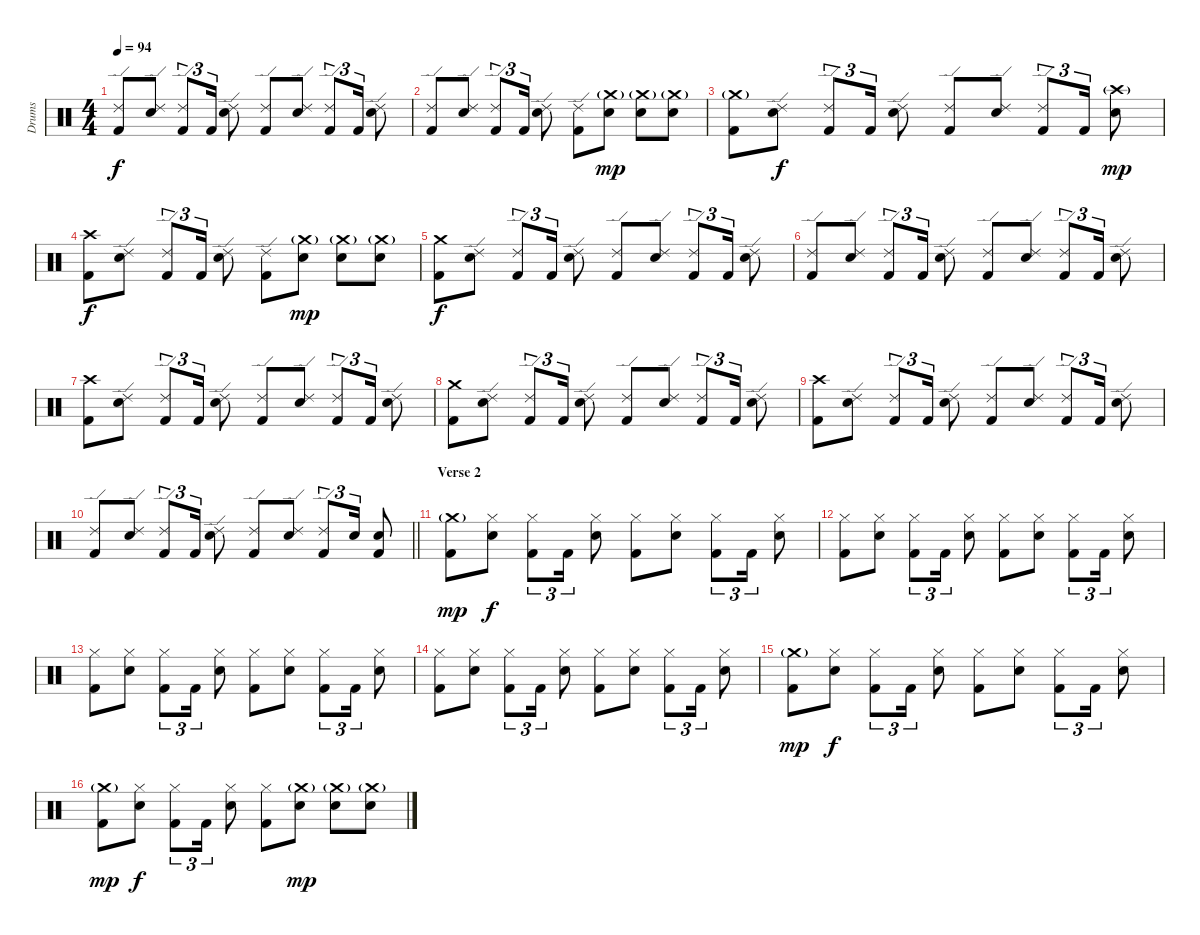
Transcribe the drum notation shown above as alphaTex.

\track ("Drums" "Drums") {instrument percussion}
\staff {score}
\articulation defaults
\ts (4 4)
\tempo 94
\clef neutral
\ks c
("Ride (edge) 2" "Kick (hit) 2").8{dy f} ("Ride (edge) 2" "Electric Snare (hit)").8 ("Ride (edge) 2" "Kick (hit) 2").8{tu (3 2)} "Kick (hit) 2".16{tu (3 2)} ("Ride (edge) 2" "Electric Snare (hit)").8 ("Ride (edge) 2" "Kick (hit) 2").8 ("Ride (edge) 2" "Electric Snare (hit)").8 ("Ride (edge) 2" "Kick (hit) 2").8{tu (3 2)} "Kick (hit) 2".16{tu (3 2)} ("Ride (edge) 2" "Electric Snare (hit)").8 |
("Ride (edge) 2" "Kick (hit) 2").8 ("Ride (edge) 2" "Electric Snare (hit)").8 ("Ride (edge) 2" "Kick (hit) 2").8{tu (3 2)} "Kick (hit) 2".16{tu (3 2)} ("Ride (edge) 2" "Electric Snare (hit)").8 ("Ride (edge) 2" "Kick (hit) 2").8 ("Crash medium (hit)"{g} "Electric Snare (hit)").8{dy mp} ("Crash medium (hit)"{g} "Electric Snare (hit)").8 ("Crash medium (hit)"{g} "Electric Snare (hit)").8 |
("Crash medium (hit)"{g} "Kick (hit) 2").8 ("Ride (edge) 2" "Electric Snare (hit)").8{dy f} ("Ride (edge) 2" "Kick (hit) 2").8{tu (3 2)} "Kick (hit) 2".16{tu (3 2)} ("Ride (edge) 2" "Electric Snare (hit)").8 ("Ride (edge) 2" "Kick (hit) 2").8 ("Ride (edge) 2" "Electric Snare (hit)").8 ("Ride (edge) 2" "Kick (hit) 2").8{tu (3 2)} "Kick (hit) 2".16{tu (3 2)} ("Crash high (hit)"{g} "Electric Snare (hit)").8{dy mp} |
("Crash high (hit)" "Kick (hit) 2").8{dy f} ("Ride (edge) 2" "Electric Snare (hit)").8 ("Ride (edge) 2" "Kick (hit) 2").8{tu (3 2)} "Kick (hit) 2".16{tu (3 2)} ("Ride (edge) 2" "Electric Snare (hit)").8 ("Ride (edge) 2" "Kick (hit) 2").8 ("Crash medium (hit)"{g} "Electric Snare (hit)").8{dy mp} ("Crash medium (hit)"{g} "Electric Snare (hit)").8 ("Crash medium (hit)"{g} "Electric Snare (hit)").8 |
("Crash medium (hit)" "Kick (hit) 2").8{dy f} ("Ride (edge) 2" "Electric Snare (hit)").8 ("Ride (edge) 2" "Kick (hit) 2").8{tu (3 2)} "Kick (hit) 2".16{tu (3 2)} ("Ride (edge) 2" "Electric Snare (hit)").8 ("Ride (edge) 2" "Kick (hit) 2").8 ("Ride (edge) 2" "Electric Snare (hit)").8 ("Ride (edge) 2" "Kick (hit) 2").8{tu (3 2)} "Kick (hit) 2".16{tu (3 2)} ("Ride (edge) 2" "Electric Snare (hit)").8 |
("Ride (edge) 2" "Kick (hit) 2").8 ("Ride (edge) 2" "Electric Snare (hit)").8 ("Ride (edge) 2" "Kick (hit) 2").8{tu (3 2)} "Kick (hit) 2".16{tu (3 2)} ("Ride (edge) 2" "Electric Snare (hit)").8 ("Ride (edge) 2" "Kick (hit) 2").8 ("Ride (edge) 2" "Electric Snare (hit)").8 ("Ride (edge) 2" "Kick (hit) 2").8{tu (3 2)} "Kick (hit) 2".16{tu (3 2)} ("Ride (edge) 2" "Electric Snare (hit)").8 |
("Crash high (hit)" "Kick (hit) 2").8 ("Ride (edge) 2" "Electric Snare (hit)").8 ("Ride (edge) 2" "Kick (hit) 2").8{tu (3 2)} "Kick (hit) 2".16{tu (3 2)} ("Ride (edge) 2" "Electric Snare (hit)").8 ("Ride (edge) 2" "Kick (hit) 2").8 ("Ride (edge) 2" "Electric Snare (hit)").8 ("Ride (edge) 2" "Kick (hit) 2").8{tu (3 2)} "Kick (hit) 2".16{tu (3 2)} ("Ride (edge) 2" "Electric Snare (hit)").8 |
("Crash medium (hit)" "Kick (hit) 2").8 ("Ride (edge) 2" "Electric Snare (hit)").8 ("Ride (edge) 2" "Kick (hit) 2").8{tu (3 2)} "Kick (hit) 2".16{tu (3 2)} ("Ride (edge) 2" "Electric Snare (hit)").8 ("Ride (edge) 2" "Kick (hit) 2").8 ("Ride (edge) 2" "Electric Snare (hit)").8 ("Ride (edge) 2" "Kick (hit) 2").8{tu (3 2)} "Kick (hit) 2".16{tu (3 2)} ("Ride (edge) 2" "Electric Snare (hit)").8 |
("Crash high (hit)" "Kick (hit) 2").8 ("Ride (edge) 2" "Electric Snare (hit)").8 ("Ride (edge) 2" "Kick (hit) 2").8{tu (3 2)} "Kick (hit) 2".16{tu (3 2)} ("Ride (edge) 2" "Electric Snare (hit)").8 ("Ride (edge) 2" "Kick (hit) 2").8 ("Ride (edge) 2" "Electric Snare (hit)").8 ("Ride (edge) 2" "Kick (hit) 2").8{tu (3 2)} "Kick (hit) 2".16{tu (3 2)} ("Ride (edge) 2" "Electric Snare (hit)").8 |
\barLineRight lightlight
("Ride (edge) 2" "Kick (hit) 2").8 ("Ride (edge) 2" "Electric Snare (hit)").8 ("Ride (edge) 2" "Kick (hit) 2").8{tu (3 2)} "Kick (hit) 2".16{tu (3 2)} ("Ride (edge) 2" "Electric Snare (hit)").8 ("Ride (edge) 2" "Kick (hit) 2").8 ("Ride (edge) 2" "Electric Snare (hit)").8 ("Ride (edge) 2" "Kick (hit) 2").8{tu (3 2)} "Electric Snare (hit)".16{tu (3 2)} ("Electric Snare (hit)" "Kick (hit) 2").8 |
\section ("" "Verse 2")
("Crash medium (hit)"{g} "Kick (hit) 2").8{dy mp} ("Hi-Hat (closed)" "Electric Snare (hit)").8{dy f} ("Hi-Hat (closed)" "Kick (hit) 2").8{tu (3 2)} "Kick (hit) 2".16{tu (3 2)} ("Hi-Hat (closed)" "Electric Snare (hit)").8 ("Hi-Hat (closed)" "Kick (hit) 2").8 ("Hi-Hat (closed)" "Electric Snare (hit)").8 ("Hi-Hat (closed)" "Kick (hit) 2").8{tu (3 2)} "Kick (hit) 2".16{tu (3 2)} ("Hi-Hat (closed)" "Electric Snare (hit)").8 |
("Hi-Hat (closed)" "Kick (hit) 2").8 ("Hi-Hat (closed)" "Electric Snare (hit)").8 ("Hi-Hat (closed)" "Kick (hit) 2").8{tu (3 2)} "Kick (hit) 2".16{tu (3 2)} ("Hi-Hat (closed)" "Electric Snare (hit)").8 ("Hi-Hat (closed)" "Kick (hit) 2").8 ("Hi-Hat (closed)" "Electric Snare (hit)").8 ("Hi-Hat (closed)" "Kick (hit) 2").8{tu (3 2)} "Kick (hit) 2".16{tu (3 2)} ("Hi-Hat (closed)" "Electric Snare (hit)").8 |
("Hi-Hat (closed)" "Kick (hit) 2").8 ("Hi-Hat (closed)" "Electric Snare (hit)").8 ("Hi-Hat (closed)" "Kick (hit) 2").8{tu (3 2)} "Kick (hit) 2".16{tu (3 2)} ("Hi-Hat (closed)" "Electric Snare (hit)").8 ("Hi-Hat (closed)" "Kick (hit) 2").8 ("Hi-Hat (closed)" "Electric Snare (hit)").8 ("Hi-Hat (closed)" "Kick (hit) 2").8{tu (3 2)} "Kick (hit) 2".16{tu (3 2)} ("Hi-Hat (closed)" "Electric Snare (hit)").8 |
("Hi-Hat (closed)" "Kick (hit) 2").8 ("Hi-Hat (closed)" "Electric Snare (hit)").8 ("Hi-Hat (closed)" "Kick (hit) 2").8{tu (3 2)} "Kick (hit) 2".16{tu (3 2)} ("Hi-Hat (closed)" "Electric Snare (hit)").8 ("Hi-Hat (closed)" "Kick (hit) 2").8 ("Hi-Hat (closed)" "Electric Snare (hit)").8 ("Hi-Hat (closed)" "Kick (hit) 2").8{tu (3 2)} "Kick (hit) 2".16{tu (3 2)} ("Hi-Hat (closed)" "Electric Snare (hit)").8 |
("Crash medium (hit)"{g} "Kick (hit) 2").8{dy mp} ("Hi-Hat (closed)" "Electric Snare (hit)").8{dy f} ("Hi-Hat (closed)" "Kick (hit) 2").8{tu (3 2)} "Kick (hit) 2".16{tu (3 2)} ("Hi-Hat (closed)" "Electric Snare (hit)").8 ("Hi-Hat (closed)" "Kick (hit) 2").8 ("Hi-Hat (closed)" "Electric Snare (hit)").8 ("Hi-Hat (closed)" "Kick (hit) 2").8{tu (3 2)} "Kick (hit) 2".16{tu (3 2)} ("Hi-Hat (closed)" "Electric Snare (hit)").8 |
("Crash medium (hit)"{g} "Kick (hit) 2").8{dy mp} ("Hi-Hat (closed)" "Electric Snare (hit)").8{dy f} ("Hi-Hat (closed)" "Kick (hit) 2").8{tu (3 2)} "Kick (hit) 2".16{tu (3 2)} ("Hi-Hat (closed)" "Electric Snare (hit)").8 ("Hi-Hat (closed)" "Kick (hit) 2").8 ("Crash medium (hit)"{g} "Electric Snare (hit)").8{dy mp} ("Crash medium (hit)"{g} "Electric Snare (hit)").8 ("Crash medium (hit)"{g} "Electric Snare (hit)").8
